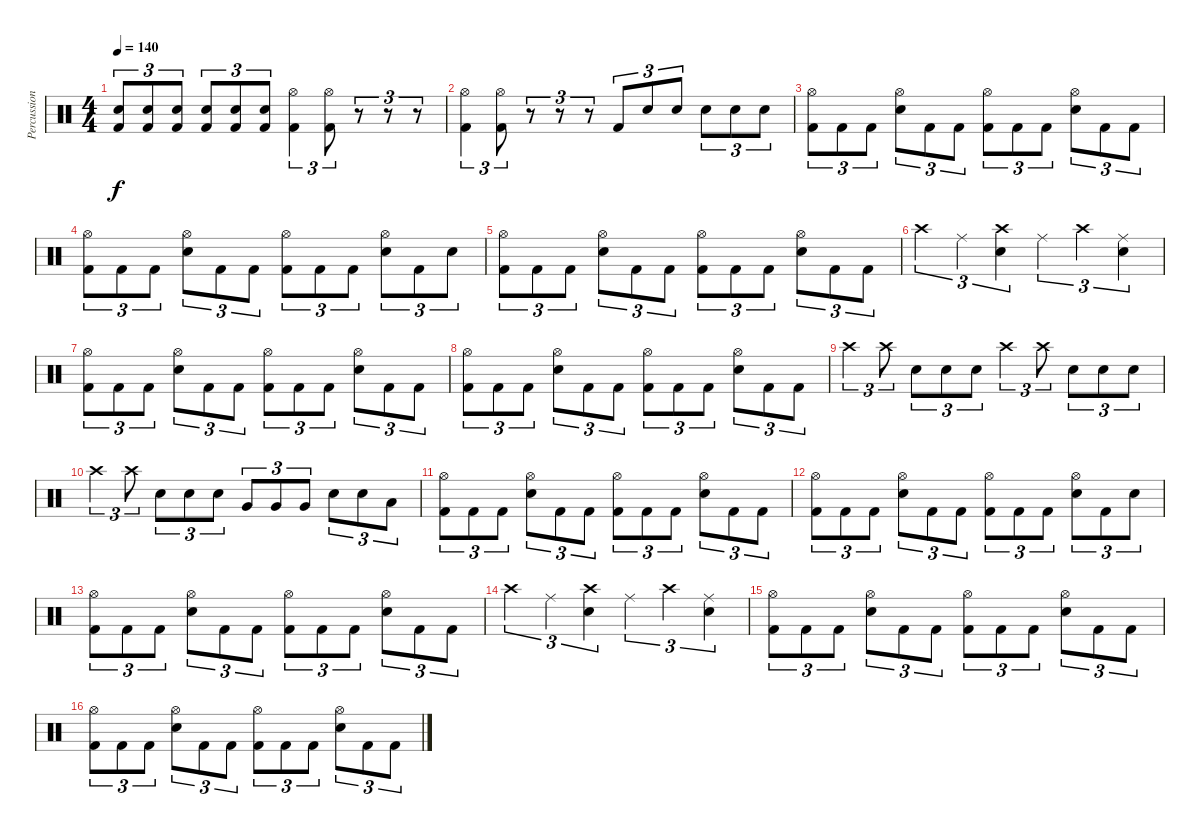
\track ("Percussion" "Percussion") {instrument percussion}
\staff {score}
\articulation defaults
\ts (4 4)
\tempo 140
\clef neutral
\ks c
("Electric Snare (hit)" "Kick (hit) 2").8{tu (3 2) dy f} ("Electric Snare (hit)" "Kick (hit) 2").8{tu (3 2)} ("Electric Snare (hit)" "Kick (hit) 2").8{tu (3 2)} ("Electric Snare (hit)" "Kick (hit) 2").8{tu (3 2)} ("Electric Snare (hit)" "Kick (hit) 2").8{tu (3 2)} ("Electric Snare (hit)" "Kick (hit) 2").8{tu (3 2)} ("Hi-Hat (open)" "Kick (hit) 2").4{tu (3 2)} ("Hi-Hat (open)" "Kick (hit) 2").8{tu (3 2)} r.8{tu (3 2)} r.8{tu (3 2)} r.8{tu (3 2)} |
("Hi-Hat (open)" "Kick (hit) 2").4{tu (3 2)} ("Hi-Hat (open)" "Kick (hit) 2").8{tu (3 2)} r.8{tu (3 2)} r.8{tu (3 2)} r.8{tu (3 2)} "Kick (hit) 2".8{tu (3 2)} "Electric Snare (hit)".8{tu (3 2)} "Electric Snare (hit)".8{tu (3 2)} "Electric Snare (hit)".8{tu (3 2)} "Electric Snare (hit)".8{tu (3 2)} "Electric Snare (hit)".8{tu (3 2)} |
("Hi-Hat (open)" "Kick (hit) 2").8{tu (3 2)} "Kick (hit) 2".8{tu (3 2)} "Kick (hit) 2".8{tu (3 2)} ("Hi-Hat (open)" "Electric Snare (hit)").8{tu (3 2)} "Kick (hit) 2".8{tu (3 2)} "Kick (hit) 2".8{tu (3 2)} ("Hi-Hat (open)" "Kick (hit) 2").8{tu (3 2)} "Kick (hit) 2".8{tu (3 2)} "Kick (hit) 2".8{tu (3 2)} ("Hi-Hat (open)" "Electric Snare (hit)").8{tu (3 2)} "Kick (hit) 2".8{tu (3 2)} "Kick (hit) 2".8{tu (3 2)} |
("Hi-Hat (open)" "Kick (hit) 2").8{tu (3 2)} "Kick (hit) 2".8{tu (3 2)} "Kick (hit) 2".8{tu (3 2)} ("Hi-Hat (open)" "Electric Snare (hit)").8{tu (3 2)} "Kick (hit) 2".8{tu (3 2)} "Kick (hit) 2".8{tu (3 2)} ("Hi-Hat (open)" "Kick (hit) 2").8{tu (3 2)} "Kick (hit) 2".8{tu (3 2)} "Kick (hit) 2".8{tu (3 2)} ("Hi-Hat (open)" "Electric Snare (hit)").8{tu (3 2)} "Kick (hit) 2".8{tu (3 2)} "Electric Snare (hit)".8{tu (3 2)} |
("Hi-Hat (open)" "Kick (hit) 2").8{tu (3 2)} "Kick (hit) 2".8{tu (3 2)} "Kick (hit) 2".8{tu (3 2)} ("Hi-Hat (open)" "Electric Snare (hit)").8{tu (3 2)} "Kick (hit) 2".8{tu (3 2)} "Kick (hit) 2".8{tu (3 2)} ("Hi-Hat (open)" "Kick (hit) 2").8{tu (3 2)} "Kick (hit) 2".8{tu (3 2)} "Kick (hit) 2".8{tu (3 2)} ("Hi-Hat (open)" "Electric Snare (hit)").8{tu (3 2)} "Kick (hit) 2".8{tu (3 2)} "Kick (hit) 2".8{tu (3 2)} |
"Crash high (hit)".4{tu (3 2)} "Ride (middle)".4{tu (3 2)} ("Crash high (hit)" "Electric Snare (hit)").4{tu (3 2)} "Ride (middle)".4{tu (3 2)} "Crash high (hit)".4{tu (3 2)} ("Ride (middle)" "Electric Snare (hit)").4{tu (3 2)} |
("Hi-Hat (open)" "Kick (hit) 2").8{tu (3 2)} "Kick (hit) 2".8{tu (3 2)} "Kick (hit) 2".8{tu (3 2)} ("Hi-Hat (open)" "Electric Snare (hit)").8{tu (3 2)} "Kick (hit) 2".8{tu (3 2)} "Kick (hit) 2".8{tu (3 2)} ("Hi-Hat (open)" "Kick (hit) 2").8{tu (3 2)} "Kick (hit) 2".8{tu (3 2)} "Kick (hit) 2".8{tu (3 2)} ("Hi-Hat (open)" "Electric Snare (hit)").8{tu (3 2)} "Kick (hit) 2".8{tu (3 2)} "Kick (hit) 2".8{tu (3 2)} |
("Hi-Hat (open)" "Kick (hit) 2").8{tu (3 2)} "Kick (hit) 2".8{tu (3 2)} "Kick (hit) 2".8{tu (3 2)} ("Hi-Hat (open)" "Electric Snare (hit)").8{tu (3 2)} "Kick (hit) 2".8{tu (3 2)} "Kick (hit) 2".8{tu (3 2)} ("Hi-Hat (open)" "Kick (hit) 2").8{tu (3 2)} "Kick (hit) 2".8{tu (3 2)} "Kick (hit) 2".8{tu (3 2)} ("Hi-Hat (open)" "Electric Snare (hit)").8{tu (3 2)} "Kick (hit) 2".8{tu (3 2)} "Kick (hit) 2".8{tu (3 2)} |
"Crash high (hit)".4{tu (3 2)} "Crash high (hit)".8{tu (3 2)} "Electric Snare (hit)".8{tu (3 2)} "Electric Snare (hit)".8{tu (3 2)} "Electric Snare (hit)".8{tu (3 2)} "Crash high (hit)".4{tu (3 2)} "Crash high (hit)".8{tu (3 2)} "Electric Snare (hit)".8{tu (3 2)} "Electric Snare (hit)".8{tu (3 2)} "Electric Snare (hit)".8{tu (3 2)} |
"Crash high (hit)".4{tu (3 2)} "Crash high (hit)".8{tu (3 2)} "Electric Snare (hit)".8{tu (3 2)} "Electric Snare (hit)".8{tu (3 2)} "Electric Snare (hit)".8{tu (3 2)} "Very Low Tom (hit)".8{tu (3 2)} "Very Low Tom (hit)".8{tu (3 2)} "Very Low Tom (hit)".8{tu (3 2)} "Electric Snare (hit)".8{tu (3 2)} "Electric Snare (hit)".8{tu (3 2)} "Low Tom (hit)".8{tu (3 2)} |
("Hi-Hat (open)" "Kick (hit) 2").8{tu (3 2)} "Kick (hit) 2".8{tu (3 2)} "Kick (hit) 2".8{tu (3 2)} ("Hi-Hat (open)" "Electric Snare (hit)").8{tu (3 2)} "Kick (hit) 2".8{tu (3 2)} "Kick (hit) 2".8{tu (3 2)} ("Hi-Hat (open)" "Kick (hit) 2").8{tu (3 2)} "Kick (hit) 2".8{tu (3 2)} "Kick (hit) 2".8{tu (3 2)} ("Hi-Hat (open)" "Electric Snare (hit)").8{tu (3 2)} "Kick (hit) 2".8{tu (3 2)} "Kick (hit) 2".8{tu (3 2)} |
("Hi-Hat (open)" "Kick (hit) 2").8{tu (3 2)} "Kick (hit) 2".8{tu (3 2)} "Kick (hit) 2".8{tu (3 2)} ("Hi-Hat (open)" "Electric Snare (hit)").8{tu (3 2)} "Kick (hit) 2".8{tu (3 2)} "Kick (hit) 2".8{tu (3 2)} ("Hi-Hat (open)" "Kick (hit) 2").8{tu (3 2)} "Kick (hit) 2".8{tu (3 2)} "Kick (hit) 2".8{tu (3 2)} ("Hi-Hat (open)" "Electric Snare (hit)").8{tu (3 2)} "Kick (hit) 2".8{tu (3 2)} "Electric Snare (hit)".8{tu (3 2)} |
("Hi-Hat (open)" "Kick (hit) 2").8{tu (3 2)} "Kick (hit) 2".8{tu (3 2)} "Kick (hit) 2".8{tu (3 2)} ("Hi-Hat (open)" "Electric Snare (hit)").8{tu (3 2)} "Kick (hit) 2".8{tu (3 2)} "Kick (hit) 2".8{tu (3 2)} ("Hi-Hat (open)" "Kick (hit) 2").8{tu (3 2)} "Kick (hit) 2".8{tu (3 2)} "Kick (hit) 2".8{tu (3 2)} ("Hi-Hat (open)" "Electric Snare (hit)").8{tu (3 2)} "Kick (hit) 2".8{tu (3 2)} "Kick (hit) 2".8{tu (3 2)} |
"Crash high (hit)".4{tu (3 2)} "Ride (middle)".4{tu (3 2)} ("Crash high (hit)" "Electric Snare (hit)").4{tu (3 2)} "Ride (middle)".4{tu (3 2)} "Crash high (hit)".4{tu (3 2)} ("Ride (middle)" "Electric Snare (hit)").4{tu (3 2)} |
("Hi-Hat (open)" "Kick (hit) 2").8{tu (3 2)} "Kick (hit) 2".8{tu (3 2)} "Kick (hit) 2".8{tu (3 2)} ("Hi-Hat (open)" "Electric Snare (hit)").8{tu (3 2)} "Kick (hit) 2".8{tu (3 2)} "Kick (hit) 2".8{tu (3 2)} ("Hi-Hat (open)" "Kick (hit) 2").8{tu (3 2)} "Kick (hit) 2".8{tu (3 2)} "Kick (hit) 2".8{tu (3 2)} ("Hi-Hat (open)" "Electric Snare (hit)").8{tu (3 2)} "Kick (hit) 2".8{tu (3 2)} "Kick (hit) 2".8{tu (3 2)} |
("Hi-Hat (open)" "Kick (hit) 2").8{tu (3 2)} "Kick (hit) 2".8{tu (3 2)} "Kick (hit) 2".8{tu (3 2)} ("Hi-Hat (open)" "Electric Snare (hit)").8{tu (3 2)} "Kick (hit) 2".8{tu (3 2)} "Kick (hit) 2".8{tu (3 2)} ("Hi-Hat (open)" "Kick (hit) 2").8{tu (3 2)} "Kick (hit) 2".8{tu (3 2)} "Kick (hit) 2".8{tu (3 2)} ("Hi-Hat (open)" "Electric Snare (hit)").8{tu (3 2)} "Kick (hit) 2".8{tu (3 2)} "Kick (hit) 2".8{tu (3 2)}
